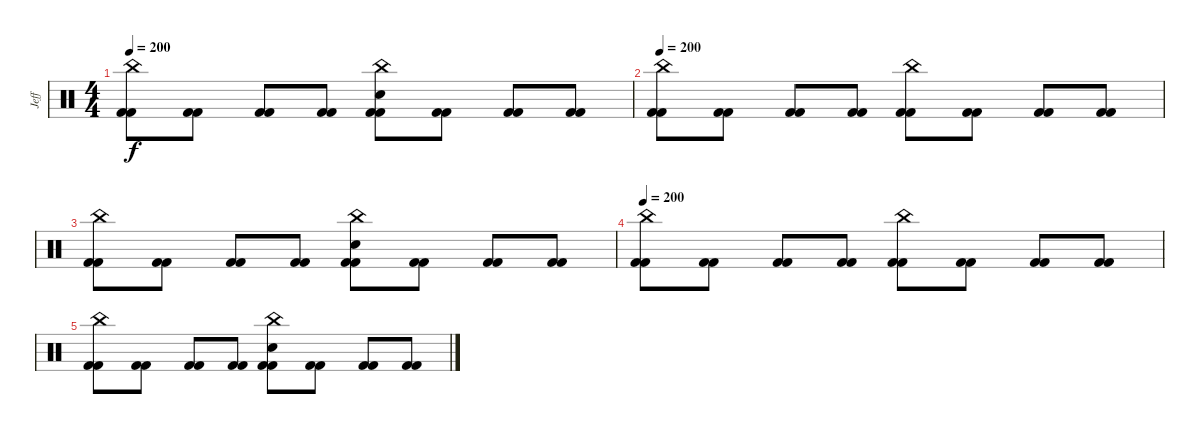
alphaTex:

\track ("Jeff" "Jeff") {instrument percussion}
\staff {score}
\articulation defaults
\ts (4 4)
\tempo 200
\clef neutral
\ks c
("China (hit)" "Kick (hit) 2" "Kick (hit) 2").8{dy f} ("Kick (hit) 2" "Kick (hit) 2").8 ("Kick (hit) 2" "Kick (hit) 2").8 ("Kick (hit) 2" "Kick (hit) 2").8 ("China (hit)" "Snare (hit) 2" "Kick (hit) 2" "Kick (hit) 2").8 ("Kick (hit) 2" "Kick (hit) 2").8 ("Kick (hit) 2" "Kick (hit) 2").8 ("Kick (hit) 2" "Kick (hit) 2").8 |
\tempo 200
("China (hit)" "Kick (hit) 2" "Kick (hit) 2").8 ("Kick (hit) 2" "Kick (hit) 2").8 ("Kick (hit) 2" "Kick (hit) 2").8 ("Kick (hit) 2" "Kick (hit) 2").8 ("China (hit)" "Kick (hit) 2" "Kick (hit) 2").8 ("Kick (hit) 2" "Kick (hit) 2").8 ("Kick (hit) 2" "Kick (hit) 2").8 ("Kick (hit) 2" "Kick (hit) 2").8 |
("China (hit)" "Kick (hit) 2" "Kick (hit) 2").8 ("Kick (hit) 2" "Kick (hit) 2").8 ("Kick (hit) 2" "Kick (hit) 2").8 ("Kick (hit) 2" "Kick (hit) 2").8 ("China (hit)" "Snare (hit) 2" "Kick (hit) 2" "Kick (hit) 2").8 ("Kick (hit) 2" "Kick (hit) 2").8 ("Kick (hit) 2" "Kick (hit) 2").8 ("Kick (hit) 2" "Kick (hit) 2").8 |
\tempo 200
("China (hit)" "Kick (hit) 2" "Kick (hit) 2").8 ("Kick (hit) 2" "Kick (hit) 2").8 ("Kick (hit) 2" "Kick (hit) 2").8 ("Kick (hit) 2" "Kick (hit) 2").8 ("China (hit)" "Kick (hit) 2" "Kick (hit) 2").8 ("Kick (hit) 2" "Kick (hit) 2").8 ("Kick (hit) 2" "Kick (hit) 2").8 ("Kick (hit) 2" "Kick (hit) 2").8 |
("China (hit)" "Kick (hit) 2" "Kick (hit) 2").8 ("Kick (hit) 2" "Kick (hit) 2").8 ("Kick (hit) 2" "Kick (hit) 2").8 ("Kick (hit) 2" "Kick (hit) 2").8 ("China (hit)" "Snare (hit) 2" "Kick (hit) 2" "Kick (hit) 2").8 ("Kick (hit) 2" "Kick (hit) 2").8 ("Kick (hit) 2" "Kick (hit) 2").8 ("Kick (hit) 2" "Kick (hit) 2").8
